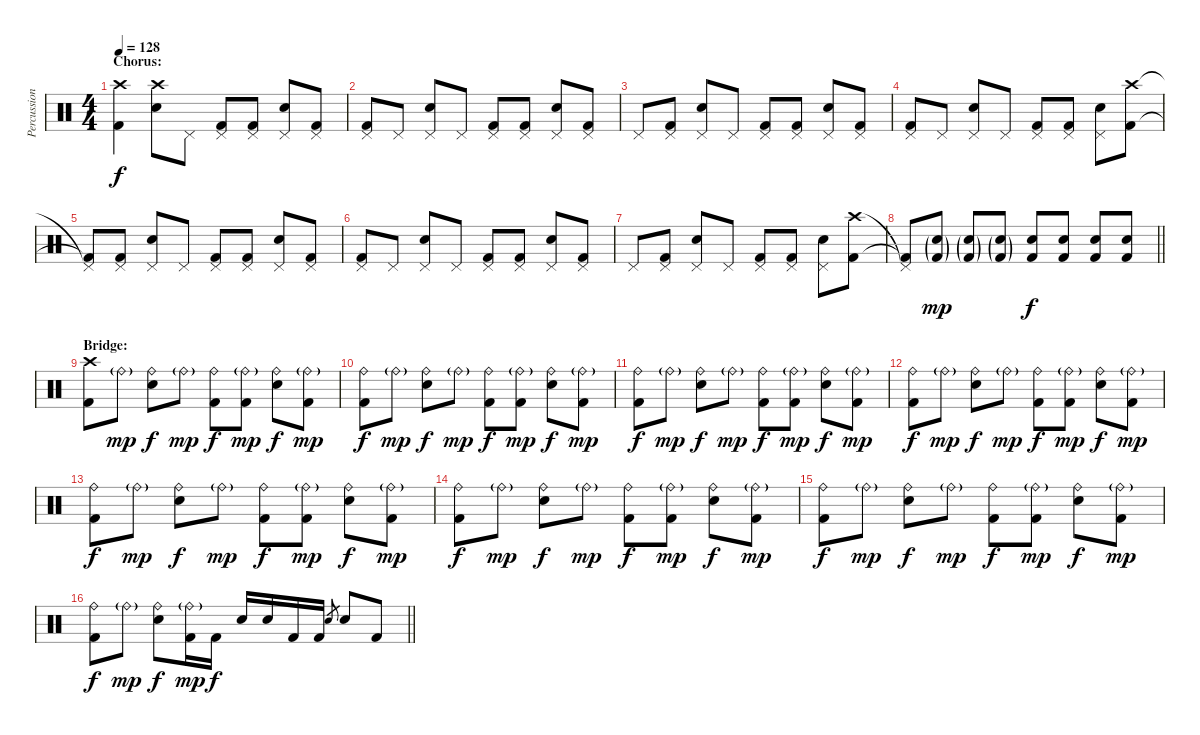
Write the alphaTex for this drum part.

\track ("Percussion" "Percussion") {instrument percussion}
\staff {score}
\articulation defaults
\ts (4 4)
\section ("" "Chorus:")
\tempo 128
\clef neutral
\ks c
("Crash high (hit)" "Kick (hit) 2").4{dy f} ("Crash high (hit)" "Electric Snare (hit)").8 "Pedal Hi-Hat (hit)".8 ("Pedal Hi-Hat (hit)" "Kick (hit) 2").8 ("Pedal Hi-Hat (hit)" "Kick (hit) 2").8 ("Pedal Hi-Hat (hit)" "Electric Snare (hit)").8 ("Pedal Hi-Hat (hit)" "Kick (hit) 2").8 |
("Pedal Hi-Hat (hit)" "Kick (hit) 2").8 "Pedal Hi-Hat (hit)".8 ("Pedal Hi-Hat (hit)" "Electric Snare (hit)").8 "Pedal Hi-Hat (hit)".8 ("Pedal Hi-Hat (hit)" "Kick (hit) 2").8 ("Pedal Hi-Hat (hit)" "Kick (hit) 2").8 ("Pedal Hi-Hat (hit)" "Electric Snare (hit)").8 ("Pedal Hi-Hat (hit)" "Kick (hit) 2").8 |
"Pedal Hi-Hat (hit)".8 ("Pedal Hi-Hat (hit)" "Kick (hit) 2").8 ("Pedal Hi-Hat (hit)" "Electric Snare (hit)").8 "Pedal Hi-Hat (hit)".8 ("Pedal Hi-Hat (hit)" "Kick (hit) 2").8 ("Pedal Hi-Hat (hit)" "Kick (hit) 2").8 ("Pedal Hi-Hat (hit)" "Electric Snare (hit)").8 ("Pedal Hi-Hat (hit)" "Kick (hit) 2").8 |
("Pedal Hi-Hat (hit)" "Kick (hit) 2").8 "Pedal Hi-Hat (hit)".8 ("Pedal Hi-Hat (hit)" "Electric Snare (hit)").8 "Pedal Hi-Hat (hit)".8 ("Pedal Hi-Hat (hit)" "Kick (hit) 2").8 ("Pedal Hi-Hat (hit)" "Kick (hit) 2").8 ("Pedal Hi-Hat (hit)" "Electric Snare (hit)").8 ("Crash high (hit)" "Kick (hit) 2").8 |
("Pedal Hi-Hat (hit)"{t} "Kick (hit) 2"{t}).8 ("Pedal Hi-Hat (hit)" "Kick (hit) 2").8 ("Pedal Hi-Hat (hit)" "Electric Snare (hit)").8 "Pedal Hi-Hat (hit)".8 ("Pedal Hi-Hat (hit)" "Kick (hit) 2").8 ("Pedal Hi-Hat (hit)" "Kick (hit) 2").8 ("Pedal Hi-Hat (hit)" "Electric Snare (hit)").8 ("Pedal Hi-Hat (hit)" "Kick (hit) 2").8 |
("Pedal Hi-Hat (hit)" "Kick (hit) 2").8 "Pedal Hi-Hat (hit)".8 ("Pedal Hi-Hat (hit)" "Electric Snare (hit)").8 "Pedal Hi-Hat (hit)".8 ("Pedal Hi-Hat (hit)" "Kick (hit) 2").8 ("Pedal Hi-Hat (hit)" "Kick (hit) 2").8 ("Pedal Hi-Hat (hit)" "Electric Snare (hit)").8 ("Pedal Hi-Hat (hit)" "Kick (hit) 2").8 |
"Pedal Hi-Hat (hit)".8 ("Pedal Hi-Hat (hit)" "Kick (hit) 2").8 ("Pedal Hi-Hat (hit)" "Electric Snare (hit)").8 "Pedal Hi-Hat (hit)".8 ("Pedal Hi-Hat (hit)" "Kick (hit) 2").8 ("Pedal Hi-Hat (hit)" "Kick (hit) 2").8 ("Pedal Hi-Hat (hit)" "Electric Snare (hit)").8 ("Crash high (hit)" "Kick (hit) 2").8 |
\barLineRight lightlight
("Pedal Hi-Hat (hit)"{t} "Kick (hit) 2"{t}).8 ("Electric Snare (hit)"{g} "Kick (hit) 2"{g}).8{dy mp} ("Electric Snare (hit)"{g} "Kick (hit) 2"{g}).8 ("Electric Snare (hit)"{g} "Kick (hit) 2"{g}).8 ("Electric Snare (hit)" "Kick (hit) 2").8{dy f} ("Electric Snare (hit)" "Kick (hit) 2").8 ("Electric Snare (hit)" "Kick (hit) 2").8 ("Electric Snare (hit)" "Kick (hit) 2").8 |
\section ("" "Bridge:")
("Crash high (hit)" "Kick (hit) 2").8 "Ride (bell)"{g}.8{dy mp} ("Ride (bell)" "Electric Snare (hit)").8{dy f} "Ride (bell)"{g}.8{dy mp} ("Ride (bell)" "Kick (hit) 2").8{dy f} ("Ride (bell)"{g} "Kick (hit) 2").8{dy mp} ("Ride (bell)" "Electric Snare (hit)").8{dy f} ("Ride (bell)"{g} "Kick (hit) 2").8{dy mp} |
("Ride (bell)" "Kick (hit) 2").8{dy f} "Ride (bell)"{g}.8{dy mp} ("Ride (bell)" "Electric Snare (hit)").8{dy f} "Ride (bell)"{g}.8{dy mp} ("Ride (bell)" "Kick (hit) 2").8{dy f} ("Ride (bell)"{g} "Kick (hit) 2").8{dy mp} ("Ride (bell)" "Electric Snare (hit)").8{dy f} ("Ride (bell)"{g} "Kick (hit) 2").8{dy mp} |
("Ride (bell)" "Kick (hit) 2").8{dy f} "Ride (bell)"{g}.8{dy mp} ("Ride (bell)" "Electric Snare (hit)").8{dy f} "Ride (bell)"{g}.8{dy mp} ("Ride (bell)" "Kick (hit) 2").8{dy f} ("Ride (bell)"{g} "Kick (hit) 2").8{dy mp} ("Ride (bell)" "Electric Snare (hit)").8{dy f} ("Ride (bell)"{g} "Kick (hit) 2").8{dy mp} |
("Ride (bell)" "Kick (hit) 2").8{dy f} "Ride (bell)"{g}.8{dy mp} ("Ride (bell)" "Electric Snare (hit)").8{dy f} "Ride (bell)"{g}.8{dy mp} ("Ride (bell)" "Kick (hit) 2").8{dy f} ("Ride (bell)"{g} "Kick (hit) 2").8{dy mp} ("Ride (bell)" "Electric Snare (hit)").8{dy f} ("Ride (bell)"{g} "Kick (hit) 2").8{dy mp} |
("Ride (bell)" "Kick (hit) 2").8{dy f} "Ride (bell)"{g}.8{dy mp} ("Ride (bell)" "Electric Snare (hit)").8{dy f} "Ride (bell)"{g}.8{dy mp} ("Ride (bell)" "Kick (hit) 2").8{dy f} ("Ride (bell)"{g} "Kick (hit) 2").8{dy mp} ("Ride (bell)" "Electric Snare (hit)").8{dy f} ("Ride (bell)"{g} "Kick (hit) 2").8{dy mp} |
("Ride (bell)" "Kick (hit) 2").8{dy f} "Ride (bell)"{g}.8{dy mp} ("Ride (bell)" "Electric Snare (hit)").8{dy f} "Ride (bell)"{g}.8{dy mp} ("Ride (bell)" "Kick (hit) 2").8{dy f} ("Ride (bell)"{g} "Kick (hit) 2").8{dy mp} ("Ride (bell)" "Electric Snare (hit)").8{dy f} ("Ride (bell)"{g} "Kick (hit) 2").8{dy mp} |
("Ride (bell)" "Kick (hit) 2").8{dy f} "Ride (bell)"{g}.8{dy mp} ("Ride (bell)" "Electric Snare (hit)").8{dy f} "Ride (bell)"{g}.8{dy mp} ("Ride (bell)" "Kick (hit) 2").8{dy f} ("Ride (bell)"{g} "Kick (hit) 2").8{dy mp} ("Ride (bell)" "Electric Snare (hit)").8{dy f} ("Ride (bell)"{g} "Kick (hit) 2").8{dy mp} |
\barLineRight lightlight
("Ride (bell)" "Kick (hit) 2").8{dy f} "Ride (bell)"{g}.8{dy mp} ("Ride (bell)" "Electric Snare (hit)").8{dy f} ("Ride (bell)"{g} "Kick (hit) 2").16{dy mp} "Kick (hit) 2".16{dy f} "Electric Snare (hit)".16 "Electric Snare (hit)".16 "Kick (hit) 2".16 "Kick (hit) 2".16 "Electric Snare (hit)".8{gr} "Electric Snare (hit)".8 "Kick (hit) 2".8
